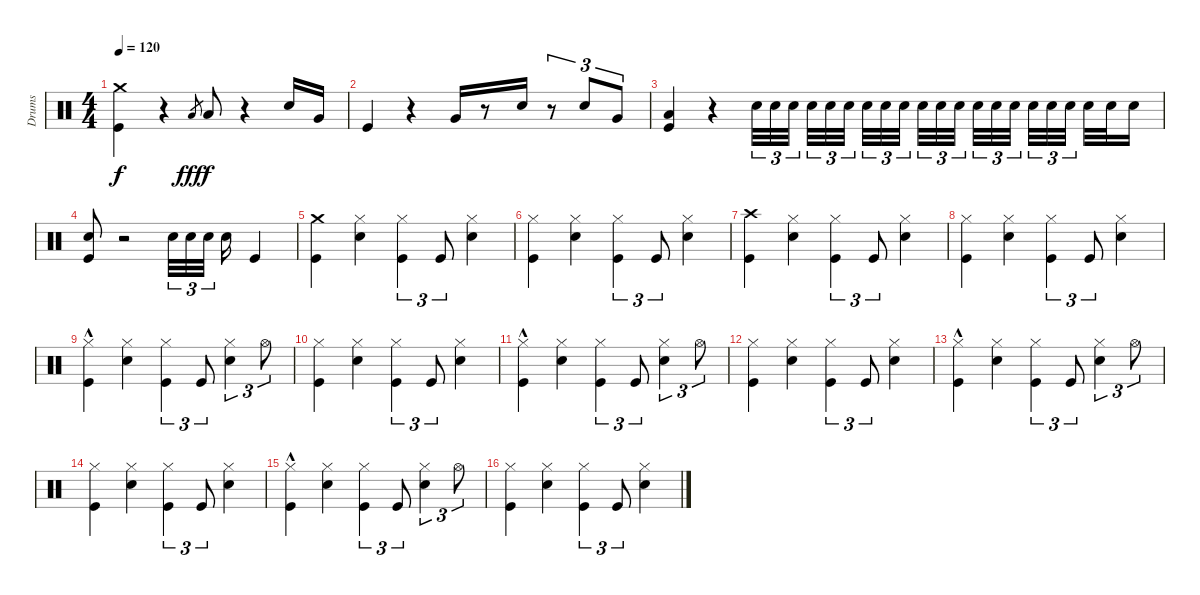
\track ("Drums" "Drums") {instrument percussion}
\staff {score}
\articulation defaults
\ts (4 4)
\tempo 120
\clef neutral
\ks c
("Kick (hit)" "Crash medium (hit)").4{dy f} r.4 "Low Tom (hit)".8{gr dy fff} "Low Tom (hit)".8{dy f} r.4 "Snare (hit) 2".16 "Very Low Tom (hit)".16 |
"Kick (hit)".4 r.4 "Very Low Tom (hit)".16 r.8 "Snare (hit) 2".16 r.8{tu (3 2)} "Snare (hit) 2".8{tu (3 2)} "Very Low Tom (hit)".8{tu (3 2)} |
("Kick (hit)" "Low Floor Tom (hit)").4 r.4 "Snare (hit) 2".32{tu (3 2)} "Snare (hit) 2".32{tu (3 2)} "Snare (hit) 2".32{tu (3 2)} "Snare (hit) 2".32{tu (3 2)} "Snare (hit) 2".32{tu (3 2)} "Snare (hit) 2".32{tu (3 2)} "Snare (hit) 2".32{tu (3 2)} "Snare (hit) 2".32{tu (3 2)} "Snare (hit) 2".32{tu (3 2)} "Snare (hit) 2".32{tu (3 2)} "Snare (hit) 2".32{tu (3 2)} "Snare (hit) 2".32{tu (3 2)} "Snare (hit) 2".32{tu (3 2)} "Snare (hit) 2".32{tu (3 2)} "Snare (hit) 2".32{tu (3 2)} "Snare (hit) 2".32{tu (3 2)} "Snare (hit) 2".32{tu (3 2)} "Snare (hit) 2".32{tu (3 2)} "Snare (hit) 2".32 "Snare (hit) 2".32 "Snare (hit) 2".16 |
("Snare (hit) 2" "Kick (hit)").8 r.2 "Snare (hit) 2".32{tu (3 2)} "Snare (hit) 2".32{tu (3 2)} "Snare (hit) 2".32{tu (3 2)} "Snare (hit) 2".16 "Kick (hit)".4 |
("Kick (hit)" "Crash medium (hit)").4 ("Snare (hit) 2" "Hi-Hat (closed)").4 ("Kick (hit)" "Hi-Hat (closed)").4{tu (3 2)} "Kick (hit)".8{tu (3 2)} ("Snare (hit) 2" "Hi-Hat (closed)").4 |
("Kick (hit)" "Hi-Hat (closed)").4 ("Snare (hit) 2" "Hi-Hat (closed)").4 ("Kick (hit)" "Hi-Hat (closed)").4{tu (3 2)} "Kick (hit)".8{tu (3 2)} ("Snare (hit) 2" "Hi-Hat (closed)").4 |
("Kick (hit)" "Crash high (hit)").4 ("Snare (hit) 2" "Hi-Hat (closed)").4 ("Kick (hit)" "Hi-Hat (closed)").4{tu (3 2)} "Kick (hit)".8{tu (3 2)} ("Snare (hit) 2" "Hi-Hat (closed)").4 |
("Kick (hit)" "Hi-Hat (closed)").4 ("Snare (hit) 2" "Hi-Hat (closed)").4 ("Kick (hit)" "Hi-Hat (closed)").4{tu (3 2)} "Kick (hit)".8{tu (3 2)} ("Snare (hit) 2" "Hi-Hat (closed)").4 |
("Kick (hit)"{hac} "Hi-Hat (closed)").4 ("Snare (hit) 2" "Hi-Hat (closed)").4 ("Kick (hit)" "Hi-Hat (closed)").4{tu (3 2)} "Kick (hit)".8{tu (3 2)} ("Snare (hit) 2" "Hi-Hat (closed)").4{tu (3 2)} "Hi-Hat (open)".8{tu (3 2)} |
("Kick (hit)" "Hi-Hat (closed)").4 ("Snare (hit) 2" "Hi-Hat (closed)").4 ("Kick (hit)" "Hi-Hat (closed)").4{tu (3 2)} "Kick (hit)".8{tu (3 2)} ("Snare (hit) 2" "Hi-Hat (closed)").4 |
("Kick (hit)"{hac} "Hi-Hat (closed)").4 ("Snare (hit) 2" "Hi-Hat (closed)").4 ("Kick (hit)" "Hi-Hat (closed)").4{tu (3 2)} "Kick (hit)".8{tu (3 2)} ("Snare (hit) 2" "Hi-Hat (closed)").4{tu (3 2)} "Hi-Hat (open)".8{tu (3 2)} |
("Kick (hit)" "Hi-Hat (closed)").4 ("Snare (hit) 2" "Hi-Hat (closed)").4 ("Kick (hit)" "Hi-Hat (closed)").4{tu (3 2)} "Kick (hit)".8{tu (3 2)} ("Snare (hit) 2" "Hi-Hat (closed)").4 |
("Kick (hit)"{hac} "Hi-Hat (closed)").4 ("Snare (hit) 2" "Hi-Hat (closed)").4 ("Kick (hit)" "Hi-Hat (closed)").4{tu (3 2)} "Kick (hit)".8{tu (3 2)} ("Snare (hit) 2" "Hi-Hat (closed)").4{tu (3 2)} "Hi-Hat (open)".8{tu (3 2)} |
("Kick (hit)" "Hi-Hat (closed)").4 ("Snare (hit) 2" "Hi-Hat (closed)").4 ("Kick (hit)" "Hi-Hat (closed)").4{tu (3 2)} "Kick (hit)".8{tu (3 2)} ("Snare (hit) 2" "Hi-Hat (closed)").4 |
("Kick (hit)"{hac} "Hi-Hat (closed)").4 ("Snare (hit) 2" "Hi-Hat (closed)").4 ("Kick (hit)" "Hi-Hat (closed)").4{tu (3 2)} "Kick (hit)".8{tu (3 2)} ("Snare (hit) 2" "Hi-Hat (closed)").4{tu (3 2)} "Hi-Hat (open)".8{tu (3 2)} |
("Kick (hit)" "Hi-Hat (closed)").4 ("Snare (hit) 2" "Hi-Hat (closed)").4 ("Kick (hit)" "Hi-Hat (closed)").4{tu (3 2)} "Kick (hit)".8{tu (3 2)} ("Snare (hit) 2" "Hi-Hat (closed)").4
